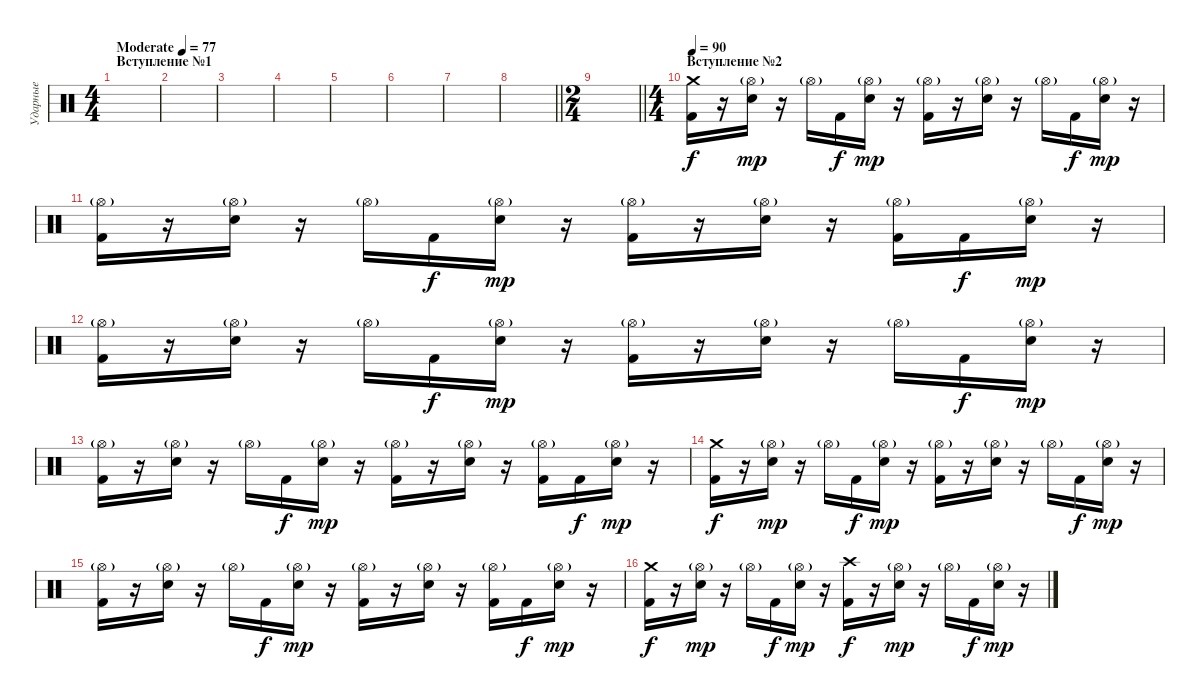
\track ("Ударные" "Ударные") {instrument percussion}
\staff {score}
\articulation defaults
\ts (4 4)
\section ("" "Вступление №1")
\tempo (77 "Moderate")
\clef neutral
\ks c
|
|
|
|
|
|
|
\barLineRight lightlight
|
\ts (2 4)
\barLineRight lightlight
|
\ts (4 4)
\section ("" "Вступление №2")
\tempo 90
("Crash medium (hit)" "Kick (hit) 2").16 r.16 ("Snare (hit) 2" "Hi-Hat (open)"{g}).16{dy mp} r.16 "Hi-Hat (open)"{g}.16 "Kick (hit) 2".16{dy f} ("Snare (hit) 2" "Hi-Hat (open)"{g}).16{dy mp} r.16 ("Hi-Hat (open)"{g} "Kick (hit) 2").16 r.16 ("Snare (hit) 2" "Hi-Hat (open)"{g}).16 r.16 "Hi-Hat (open)"{g}.16 "Kick (hit) 2".16{dy f} ("Snare (hit) 2" "Hi-Hat (open)"{g}).16{dy mp} r.16 |
("Hi-Hat (open)"{g} "Kick (hit) 2").16 r.16 ("Snare (hit) 2" "Hi-Hat (open)"{g}).16 r.16 "Hi-Hat (open)"{g}.16 "Kick (hit) 2".16{dy f} ("Snare (hit) 2" "Hi-Hat (open)"{g}).16{dy mp} r.16 ("Hi-Hat (open)"{g} "Kick (hit) 2").16 r.16 ("Snare (hit) 2" "Hi-Hat (open)"{g}).16 r.16 ("Hi-Hat (open)"{g} "Kick (hit) 2").16 "Kick (hit) 2".16{dy f} ("Snare (hit) 2" "Hi-Hat (open)"{g}).16{dy mp} r.16 |
("Hi-Hat (open)"{g} "Kick (hit) 2").16 r.16 ("Snare (hit) 2" "Hi-Hat (open)"{g}).16 r.16 "Hi-Hat (open)"{g}.16 "Kick (hit) 2".16{dy f} ("Snare (hit) 2" "Hi-Hat (open)"{g}).16{dy mp} r.16 ("Hi-Hat (open)"{g} "Kick (hit) 2").16 r.16 ("Snare (hit) 2" "Hi-Hat (open)"{g}).16 r.16 "Hi-Hat (open)"{g}.16 "Kick (hit) 2".16{dy f} ("Snare (hit) 2" "Hi-Hat (open)"{g}).16{dy mp} r.16 |
("Hi-Hat (open)"{g} "Kick (hit) 2").16 r.16 ("Snare (hit) 2" "Hi-Hat (open)"{g}).16 r.16 "Hi-Hat (open)"{g}.16 "Kick (hit) 2".16{dy f} ("Snare (hit) 2" "Hi-Hat (open)"{g}).16{dy mp} r.16 ("Hi-Hat (open)"{g} "Kick (hit) 2").16 r.16 ("Snare (hit) 2" "Hi-Hat (open)"{g}).16 r.16 ("Hi-Hat (open)"{g} "Kick (hit) 2").16 "Kick (hit) 2".16{dy f} ("Snare (hit) 2" "Hi-Hat (open)"{g}).16{dy mp} r.16 |
("Crash medium (hit)" "Kick (hit) 2").16{dy f} r.16 ("Snare (hit) 2" "Hi-Hat (open)"{g}).16{dy mp} r.16 "Hi-Hat (open)"{g}.16 "Kick (hit) 2".16{dy f} ("Snare (hit) 2" "Hi-Hat (open)"{g}).16{dy mp} r.16 ("Hi-Hat (open)"{g} "Kick (hit) 2").16 r.16 ("Snare (hit) 2" "Hi-Hat (open)"{g}).16 r.16 "Hi-Hat (open)"{g}.16 "Kick (hit) 2".16{dy f} ("Snare (hit) 2" "Hi-Hat (open)"{g}).16{dy mp} r.16 |
("Hi-Hat (open)"{g} "Kick (hit) 2").16 r.16 ("Snare (hit) 2" "Hi-Hat (open)"{g}).16 r.16 "Hi-Hat (open)"{g}.16 "Kick (hit) 2".16{dy f} ("Snare (hit) 2" "Hi-Hat (open)"{g}).16{dy mp} r.16 ("Hi-Hat (open)"{g} "Kick (hit) 2").16 r.16 ("Snare (hit) 2" "Hi-Hat (open)"{g}).16 r.16 ("Hi-Hat (open)"{g} "Kick (hit) 2").16 "Kick (hit) 2".16{dy f} ("Snare (hit) 2" "Hi-Hat (open)"{g}).16{dy mp} r.16 |
("Crash medium (hit)" "Kick (hit) 2").16{dy f} r.16 ("Snare (hit) 2" "Hi-Hat (open)"{g}).16{dy mp} r.16 "Hi-Hat (open)"{g}.16 "Kick (hit) 2".16{dy f} ("Snare (hit) 2" "Hi-Hat (open)"{g}).16{dy mp} r.16 ("Crash high (hit)" "Kick (hit) 2").16{dy f} r.16 ("Snare (hit) 2" "Hi-Hat (open)"{g}).16{dy mp} r.16 "Hi-Hat (open)"{g}.16 "Kick (hit) 2".16{dy f} ("Snare (hit) 2" "Hi-Hat (open)"{g}).16{dy mp} r.16
